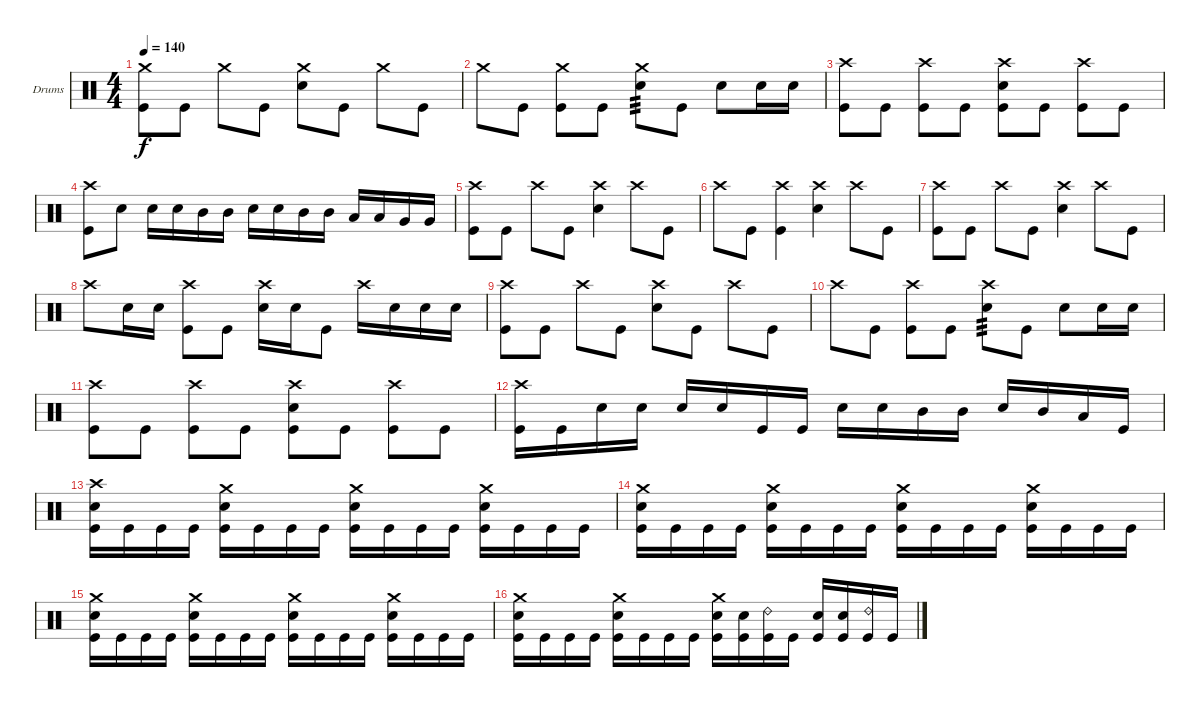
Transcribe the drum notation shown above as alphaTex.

\bracketExtendMode groupsimilarinstruments
\firstSystemTrackNameOrientation horizontal
\otherSystemsTrackNameOrientation horizontal
\track ("Drumkit" "Drums") {instrument percussion}
\staff {score}
\articulation defaults
\ts (4 4)
\tempo 140
\clef neutral
\ks c
("Crash medium (hit)" "Kick (hit)").8{dy f} "Kick (hit)".8 "Crash medium (hit)".8 "Kick (hit)".8 ("Snare (hit) 2" "Crash medium (hit)").8 "Kick (hit)".8 "Crash medium (hit)".8 "Kick (hit)".8 |
"Crash medium (hit)".8 "Kick (hit)".8 ("Crash medium (hit)" "Kick (hit)").8 "Kick (hit)".8 ("Snare (hit) 2" "Crash medium (hit)").8{tp 3} "Kick (hit)".8 "Snare (hit) 2".8 "Snare (hit) 2".16 "Snare (hit) 2".16 |
("Kick (hit)" "Crash high (hit)").8 "Kick (hit)".8 ("Kick (hit)" "Crash high (hit)").8 "Kick (hit)".8 ("Kick (hit)" "Crash high (hit)" "Snare (hit) 2").8 "Kick (hit)".8 ("Kick (hit)" "Crash high (hit)").8 "Kick (hit)".8 |
("Kick (hit)" "Crash high (hit)").8 "Snare (hit) 2".8 "Snare (hit) 2".16 "Snare (hit) 2".16 "Mid Tom (hit)".16 "Mid Tom (hit)".16 "Snare (hit) 2".16 "Snare (hit) 2".16 "Mid Tom (hit)".16 "Mid Tom (hit)".16 "Low Tom (hit)".16 "Low Tom (hit)".16 "Very Low Tom (hit)".16 "Very Low Tom (hit)".16 |
("Kick (hit)" "Crash high (hit)").8 "Kick (hit)".8 "Crash high (hit)".8 "Kick (hit)".8 ("Snare (hit) 2" "Crash high (hit)").4 "Crash high (hit)".8 "Kick (hit)".8 |
"Crash high (hit)".8 "Kick (hit)".8 ("Kick (hit)" "Crash high (hit)").4 ("Snare (hit) 2" "Crash high (hit)").4 "Crash high (hit)".8 "Kick (hit)".8 |
("Kick (hit)" "Crash high (hit)").8 "Kick (hit)".8 "Crash high (hit)".8 "Kick (hit)".8 ("Snare (hit) 2" "Crash high (hit)").4 "Crash high (hit)".8 "Kick (hit)".8 |
"Crash high (hit)".8 "Snare (hit) 2".16 "Snare (hit) 2".16 ("Kick (hit)" "Crash high (hit)").8 "Kick (hit)".8 ("Snare (hit) 2" "Crash high (hit)").16 "Snare (hit) 2".16 "Kick (hit)".8 "Crash high (hit)".16 "Snare (hit) 2".16 "Snare (hit) 2".16 "Snare (hit) 2".16 |
("Kick (hit)" "Crash high (hit)").8 "Kick (hit)".8 "Crash high (hit)".8 "Kick (hit)".8 ("Snare (hit) 2" "Crash high (hit)").8 "Kick (hit)".8 "Crash high (hit)".8 "Kick (hit)".8 |
"Crash high (hit)".8 "Kick (hit)".8 ("Kick (hit)" "Crash high (hit)").8 "Kick (hit)".8 ("Snare (hit) 2" "Crash high (hit)").8{tp 3} "Kick (hit)".8 "Snare (hit) 2".8 "Snare (hit) 2".16 "Snare (hit) 2".16 |
("Kick (hit)" "Crash high (hit)").8 "Kick (hit)".8 ("Kick (hit)" "Crash high (hit)").8 "Kick (hit)".8 ("Kick (hit)" "Crash high (hit)" "Snare (hit) 2").8 "Kick (hit)".8 ("Kick (hit)" "Crash high (hit)").8 "Kick (hit)".8 |
("Kick (hit)" "Crash high (hit)").16 "Kick (hit)".16 "Snare (hit) 2".16 "Snare (hit) 2".16 "Snare (hit) 2".16 "Snare (hit) 2".16 "Kick (hit)".16 "Kick (hit)".16 "Snare (hit) 2".16 "Snare (hit) 2".16 "Mid Tom (hit)".16 "Mid Tom (hit)".16 "Snare (hit) 2".16 "Mid Tom (hit)".16 "Low Tom (hit)".16 "Kick (hit)".16 |
("Kick (hit)" "Snare (hit) 2" "Crash high (hit)").16 "Kick (hit)".16 "Kick (hit)".16 "Kick (hit)".16 ("Kick (hit)" "Snare (hit) 2" "Crash medium (hit)").16 "Kick (hit)".16 "Kick (hit)".16 "Kick (hit)".16 ("Kick (hit)" "Snare (hit) 2" "Crash medium (hit)").16 "Kick (hit)".16 "Kick (hit)".16 "Kick (hit)".16 ("Kick (hit)" "Snare (hit) 2" "Crash medium (hit)").16 "Kick (hit)".16 "Kick (hit)".16 "Kick (hit)".16 |
("Kick (hit)" "Snare (hit) 2" "Crash medium (hit)").16 "Kick (hit)".16 "Kick (hit)".16 "Kick (hit)".16 ("Kick (hit)" "Snare (hit) 2" "Crash medium (hit)").16 "Kick (hit)".16 "Kick (hit)".16 "Kick (hit)".16 ("Kick (hit)" "Snare (hit) 2" "Crash medium (hit)").16 "Kick (hit)".16 "Kick (hit)".16 "Kick (hit)".16 ("Kick (hit)" "Snare (hit) 2" "Crash medium (hit)").16 "Kick (hit)".16 "Kick (hit)".16 "Kick (hit)".16 |
("Kick (hit)" "Snare (hit) 2" "Crash medium (hit)").16 "Kick (hit)".16 "Kick (hit)".16 "Kick (hit)".16 ("Kick (hit)" "Snare (hit) 2" "Crash medium (hit)").16 "Kick (hit)".16 "Kick (hit)".16 "Kick (hit)".16 ("Kick (hit)" "Snare (hit) 2" "Crash medium (hit)").16 "Kick (hit)".16 "Kick (hit)".16 "Kick (hit)".16 ("Kick (hit)" "Snare (hit) 2" "Crash medium (hit)").16 "Kick (hit)".16 "Kick (hit)".16 "Kick (hit)".16 |
("Kick (hit)" "Snare (hit) 2" "Crash medium (hit)").16 "Kick (hit)".16 "Kick (hit)".16 "Kick (hit)".16 ("Kick (hit)" "Snare (hit) 2" "Crash medium (hit)").16 "Kick (hit)".16 "Kick (hit)".16 "Kick (hit)".16 ("Kick (hit)" "Snare (hit) 2" "Crash medium (hit)").16 ("Kick (hit)" "Snare (hit) 2").16 ("Kick (hit)" "Ride (bell) 2").16 "Kick (hit)".16 ("Kick (hit)" "Snare (hit) 2").16 ("Kick (hit)" "Snare (hit) 2").16 ("Kick (hit)" "Ride (bell) 2").16 "Kick (hit)".16
